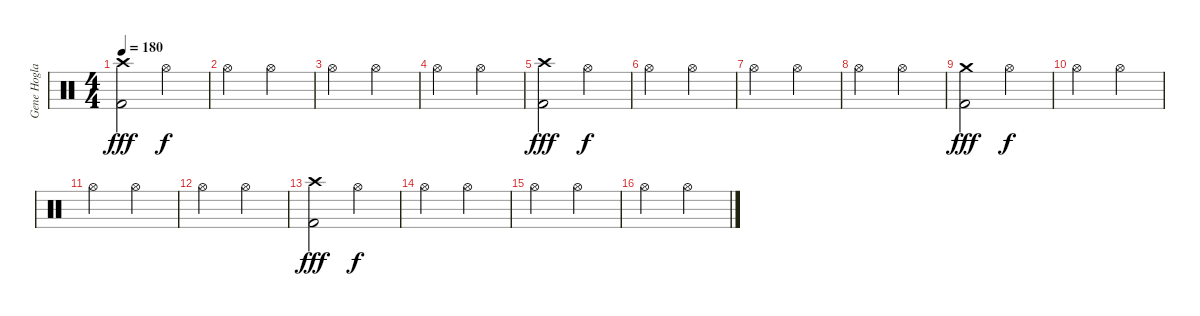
\track ("Gene Hoglan" "Gene Hogla") {instrument percussion}
\staff {score}
\articulation defaults
\ts (4 4)
\tempo 180
\clef neutral
\ks c
("Crash high (hit)" "Kick (hit) 2").2{dy fff} "Hi-Hat (open)".2{dy f} |
"Hi-Hat (open)".2 "Hi-Hat (open)".2 |
"Hi-Hat (open)".2 "Hi-Hat (open)".2 |
"Hi-Hat (open)".2 "Hi-Hat (open)".2 |
("Crash high (hit)" "Kick (hit) 2").2{dy fff} "Hi-Hat (open)".2{dy f} |
"Hi-Hat (open)".2 "Hi-Hat (open)".2 |
"Hi-Hat (open)".2 "Hi-Hat (open)".2 |
"Hi-Hat (open)".2 "Hi-Hat (open)".2 |
("Crash medium (hit)" "Kick (hit) 2").2{dy fff} "Hi-Hat (open)".2{dy f} |
"Hi-Hat (open)".2 "Hi-Hat (open)".2 |
"Hi-Hat (open)".2 "Hi-Hat (open)".2 |
"Hi-Hat (open)".2 "Hi-Hat (open)".2 |
("Crash high (hit)" "Kick (hit) 2").2{dy fff} "Hi-Hat (open)".2{dy f} |
"Hi-Hat (open)".2 "Hi-Hat (open)".2 |
"Hi-Hat (open)".2 "Hi-Hat (open)".2 |
"Hi-Hat (open)".2 "Hi-Hat (open)".2
